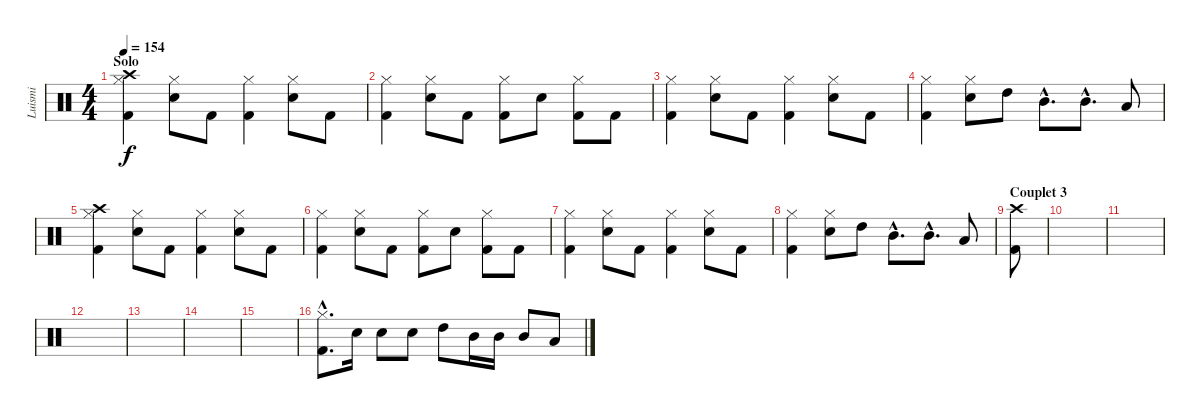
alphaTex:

\track ("Luismi" "Luismi") {instrument percussion}
\staff {score}
\articulation defaults
\ts (4 4)
\section ("" "Solo")
\tempo 154
\clef neutral
\ks c
("Kick (hit) 2" "Hi-Hat (closed)" "Crash high (hit)").4{dy f} ("Snare (hit) 2" "Hi-Hat (closed)").8 "Kick (hit) 2".8 ("Kick (hit) 2" "Hi-Hat (closed)").4 ("Snare (hit) 2" "Hi-Hat (closed)").8 "Kick (hit) 2".8 |
("Kick (hit) 2" "Hi-Hat (closed)").4 ("Snare (hit) 2" "Hi-Hat (closed)").8 "Kick (hit) 2".8 ("Kick (hit) 2" "Hi-Hat (closed)").8 "Snare (hit) 2".8 ("Kick (hit) 2" "Hi-Hat (closed)").8 "Kick (hit) 2".8 |
("Kick (hit) 2" "Hi-Hat (closed)").4 ("Snare (hit) 2" "Hi-Hat (closed)").8 "Kick (hit) 2".8 ("Kick (hit) 2" "Hi-Hat (closed)").4 ("Snare (hit) 2" "Hi-Hat (closed)").8 "Kick (hit) 2".8 |
("Kick (hit) 2" "Hi-Hat (closed)").4 ("Snare (hit) 2" "Hi-Hat (closed)").8 "High Tom (hit)".8 "Mid Tom (hit)"{hac}.8{d} "Mid Tom (hit)"{hac}.8{d} "Low Tom (hit)".8 |
("Kick (hit) 2" "Hi-Hat (closed)" "Crash high (hit)").4 ("Snare (hit) 2" "Hi-Hat (closed)").8 "Kick (hit) 2".8 ("Kick (hit) 2" "Hi-Hat (closed)").4 ("Snare (hit) 2" "Hi-Hat (closed)").8 "Kick (hit) 2".8 |
("Kick (hit) 2" "Hi-Hat (closed)").4 ("Snare (hit) 2" "Hi-Hat (closed)").8 "Kick (hit) 2".8 ("Kick (hit) 2" "Hi-Hat (closed)").8 "Snare (hit) 2".8 ("Kick (hit) 2" "Hi-Hat (closed)").8 "Kick (hit) 2".8 |
("Kick (hit) 2" "Hi-Hat (closed)").4 ("Snare (hit) 2" "Hi-Hat (closed)").8 "Kick (hit) 2".8 ("Kick (hit) 2" "Hi-Hat (closed)").4 ("Snare (hit) 2" "Hi-Hat (closed)").8 "Kick (hit) 2".8 |
("Kick (hit) 2" "Hi-Hat (closed)").4 ("Snare (hit) 2" "Hi-Hat (closed)").8 "High Tom (hit)".8 "Mid Tom (hit)"{hac}.8{d} "Mid Tom (hit)"{hac}.8{d} "Low Tom (hit)".8 |
\section ("" "Couplet 3")
("Kick (hit) 2" "Crash high (hit)").8 |
|
|
|
|
|
|
("Kick (hit) 2"{hac} "Hi-Hat (closed)"{hac}).8{d} "Snare (hit) 2".16 "Snare (hit) 2".8 "Snare (hit) 2".8 "High Tom (hit)".8 "Mid Tom (hit)".16 "Mid Tom (hit)".16 "Mid Tom (hit)".8 "Low Tom (hit)".8
